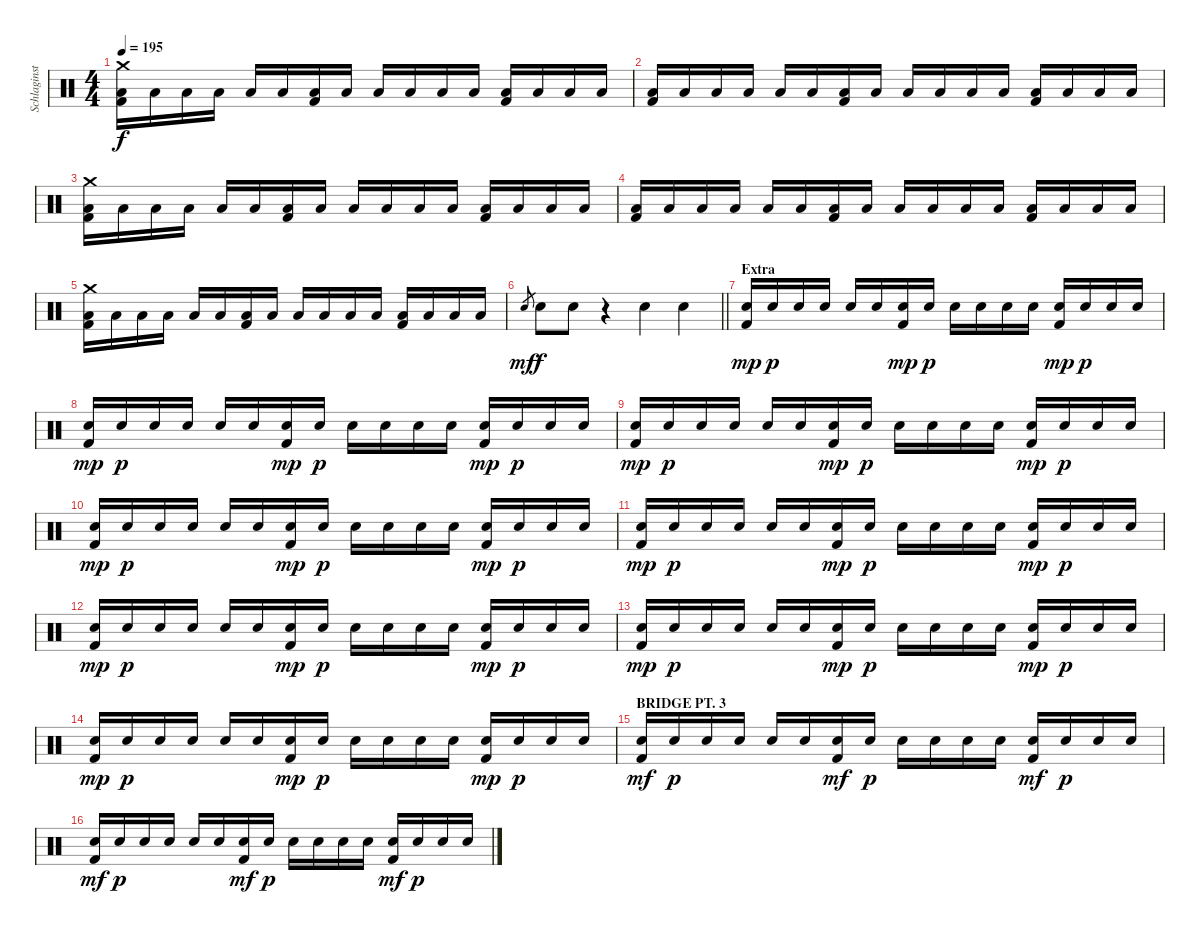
\track ("Schlaginstrumente - Auswahl" "Schlaginst") {instrument percussion}
\staff {score}
\articulation defaults
\ts (4 4)
\tempo 195
\clef neutral
\ks c
("Crash medium (hit)" "Low Floor Tom (hit)" "Kick (hit) 2").16{dy f} "Low Floor Tom (hit)".16 "Low Floor Tom (hit)".16 "Low Floor Tom (hit)".16 "Low Floor Tom (hit)".16 "Low Floor Tom (hit)".16 ("Low Floor Tom (hit)" "Kick (hit) 2").16 "Low Floor Tom (hit)".16 "Low Floor Tom (hit)".16 "Low Floor Tom (hit)".16 "Low Floor Tom (hit)".16 "Low Floor Tom (hit)".16 ("Low Floor Tom (hit)" "Kick (hit) 2").16 "Low Floor Tom (hit)".16 "Low Floor Tom (hit)".16 "Low Floor Tom (hit)".16 |
("Low Floor Tom (hit)" "Kick (hit) 2").16 "Low Floor Tom (hit)".16 "Low Floor Tom (hit)".16 "Low Floor Tom (hit)".16 "Low Floor Tom (hit)".16 "Low Floor Tom (hit)".16 ("Low Floor Tom (hit)" "Kick (hit) 2").16 "Low Floor Tom (hit)".16 "Low Floor Tom (hit)".16 "Low Floor Tom (hit)".16 "Low Floor Tom (hit)".16 "Low Floor Tom (hit)".16 ("Low Floor Tom (hit)" "Kick (hit) 2").16 "Low Floor Tom (hit)".16 "Low Floor Tom (hit)".16 "Low Floor Tom (hit)".16 |
("Crash medium (hit)" "Low Floor Tom (hit)" "Kick (hit) 2").16 "Low Floor Tom (hit)".16 "Low Floor Tom (hit)".16 "Low Floor Tom (hit)".16 "Low Floor Tom (hit)".16 "Low Floor Tom (hit)".16 ("Low Floor Tom (hit)" "Kick (hit) 2").16 "Low Floor Tom (hit)".16 "Low Floor Tom (hit)".16 "Low Floor Tom (hit)".16 "Low Floor Tom (hit)".16 "Low Floor Tom (hit)".16 ("Low Floor Tom (hit)" "Kick (hit) 2").16 "Low Floor Tom (hit)".16 "Low Floor Tom (hit)".16 "Low Floor Tom (hit)".16 |
("Low Floor Tom (hit)" "Kick (hit) 2").16 "Low Floor Tom (hit)".16 "Low Floor Tom (hit)".16 "Low Floor Tom (hit)".16 "Low Floor Tom (hit)".16 "Low Floor Tom (hit)".16 ("Low Floor Tom (hit)" "Kick (hit) 2").16 "Low Floor Tom (hit)".16 "Low Floor Tom (hit)".16 "Low Floor Tom (hit)".16 "Low Floor Tom (hit)".16 "Low Floor Tom (hit)".16 ("Low Floor Tom (hit)" "Kick (hit) 2").16 "Low Floor Tom (hit)".16 "Low Floor Tom (hit)".16 "Low Floor Tom (hit)".16 |
("Crash medium (hit)" "Low Floor Tom (hit)" "Kick (hit) 2").16 "Low Floor Tom (hit)".16 "Low Floor Tom (hit)".16 "Low Floor Tom (hit)".16 "Low Floor Tom (hit)".16 "Low Floor Tom (hit)".16 ("Low Floor Tom (hit)" "Kick (hit) 2").16 "Low Floor Tom (hit)".16 "Low Floor Tom (hit)".16 "Low Floor Tom (hit)".16 "Low Floor Tom (hit)".16 "Low Floor Tom (hit)".16 ("Low Floor Tom (hit)" "Kick (hit) 2").16 "Low Floor Tom (hit)".16 "Low Floor Tom (hit)".16 "Low Floor Tom (hit)".16 |
\barLineRight lightlight "Snare (hit) 2".8{gr dy mf} "Snare (hit) 2".8{dy f} "Snare (hit) 2".8
r.4 "Snare (hit) 2".4 "Snare (hit) 2".4 |
\section ("" "Extra")
("Snare (hit) 2" "Kick (hit) 2").16{dy mp} "Snare (hit) 2".16{dy p} "Snare (hit) 2".16 "Snare (hit) 2".16 "Snare (hit) 2".16 "Snare (hit) 2".16 ("Snare (hit) 2" "Kick (hit) 2").16{dy mp} "Snare (hit) 2".16{dy p} "Snare (hit) 2".16 "Snare (hit) 2".16 "Snare (hit) 2".16 "Snare (hit) 2".16 ("Snare (hit) 2" "Kick (hit) 2").16{dy mp} "Snare (hit) 2".16{dy p} "Snare (hit) 2".16 "Snare (hit) 2".16 |
("Snare (hit) 2" "Kick (hit) 2").16{dy mp} "Snare (hit) 2".16{dy p} "Snare (hit) 2".16 "Snare (hit) 2".16 "Snare (hit) 2".16 "Snare (hit) 2".16 ("Snare (hit) 2" "Kick (hit) 2").16{dy mp} "Snare (hit) 2".16{dy p} "Snare (hit) 2".16 "Snare (hit) 2".16 "Snare (hit) 2".16 "Snare (hit) 2".16 ("Snare (hit) 2" "Kick (hit) 2").16{dy mp} "Snare (hit) 2".16{dy p} "Snare (hit) 2".16 "Snare (hit) 2".16 |
("Snare (hit) 2" "Kick (hit) 2").16{dy mp} "Snare (hit) 2".16{dy p} "Snare (hit) 2".16 "Snare (hit) 2".16 "Snare (hit) 2".16 "Snare (hit) 2".16 ("Snare (hit) 2" "Kick (hit) 2").16{dy mp} "Snare (hit) 2".16{dy p} "Snare (hit) 2".16 "Snare (hit) 2".16 "Snare (hit) 2".16 "Snare (hit) 2".16 ("Snare (hit) 2" "Kick (hit) 2").16{dy mp} "Snare (hit) 2".16{dy p} "Snare (hit) 2".16 "Snare (hit) 2".16 |
("Snare (hit) 2" "Kick (hit) 2").16{dy mp} "Snare (hit) 2".16{dy p} "Snare (hit) 2".16 "Snare (hit) 2".16 "Snare (hit) 2".16 "Snare (hit) 2".16 ("Snare (hit) 2" "Kick (hit) 2").16{dy mp} "Snare (hit) 2".16{dy p} "Snare (hit) 2".16 "Snare (hit) 2".16 "Snare (hit) 2".16 "Snare (hit) 2".16 ("Snare (hit) 2" "Kick (hit) 2").16{dy mp} "Snare (hit) 2".16{dy p} "Snare (hit) 2".16 "Snare (hit) 2".16 |
("Snare (hit) 2" "Kick (hit) 2").16{dy mp} "Snare (hit) 2".16{dy p} "Snare (hit) 2".16 "Snare (hit) 2".16 "Snare (hit) 2".16 "Snare (hit) 2".16 ("Snare (hit) 2" "Kick (hit) 2").16{dy mp} "Snare (hit) 2".16{dy p} "Snare (hit) 2".16 "Snare (hit) 2".16 "Snare (hit) 2".16 "Snare (hit) 2".16 ("Snare (hit) 2" "Kick (hit) 2").16{dy mp} "Snare (hit) 2".16{dy p} "Snare (hit) 2".16 "Snare (hit) 2".16 |
("Snare (hit) 2" "Kick (hit) 2").16{dy mp} "Snare (hit) 2".16{dy p} "Snare (hit) 2".16 "Snare (hit) 2".16 "Snare (hit) 2".16 "Snare (hit) 2".16 ("Snare (hit) 2" "Kick (hit) 2").16{dy mp} "Snare (hit) 2".16{dy p} "Snare (hit) 2".16 "Snare (hit) 2".16 "Snare (hit) 2".16 "Snare (hit) 2".16 ("Snare (hit) 2" "Kick (hit) 2").16{dy mp} "Snare (hit) 2".16{dy p} "Snare (hit) 2".16 "Snare (hit) 2".16 |
("Snare (hit) 2" "Kick (hit) 2").16{dy mp} "Snare (hit) 2".16{dy p} "Snare (hit) 2".16 "Snare (hit) 2".16 "Snare (hit) 2".16 "Snare (hit) 2".16 ("Snare (hit) 2" "Kick (hit) 2").16{dy mp} "Snare (hit) 2".16{dy p} "Snare (hit) 2".16 "Snare (hit) 2".16 "Snare (hit) 2".16 "Snare (hit) 2".16 ("Snare (hit) 2" "Kick (hit) 2").16{dy mp} "Snare (hit) 2".16{dy p} "Snare (hit) 2".16 "Snare (hit) 2".16 |
("Snare (hit) 2" "Kick (hit) 2").16{dy mp} "Snare (hit) 2".16{dy p} "Snare (hit) 2".16 "Snare (hit) 2".16 "Snare (hit) 2".16 "Snare (hit) 2".16 ("Snare (hit) 2" "Kick (hit) 2").16{dy mp} "Snare (hit) 2".16{dy p} "Snare (hit) 2".16 "Snare (hit) 2".16 "Snare (hit) 2".16 "Snare (hit) 2".16 ("Snare (hit) 2" "Kick (hit) 2").16{dy mp} "Snare (hit) 2".16{dy p} "Snare (hit) 2".16 "Snare (hit) 2".16 |
\section ("" "BRIDGE PT. 3")
("Snare (hit) 2" "Kick (hit) 2").16{dy mf} "Snare (hit) 2".16{dy p} "Snare (hit) 2".16 "Snare (hit) 2".16 "Snare (hit) 2".16 "Snare (hit) 2".16 ("Snare (hit) 2" "Kick (hit) 2").16{dy mf} "Snare (hit) 2".16{dy p} "Snare (hit) 2".16 "Snare (hit) 2".16 "Snare (hit) 2".16 "Snare (hit) 2".16 ("Snare (hit) 2" "Kick (hit) 2").16{dy mf} "Snare (hit) 2".16{dy p} "Snare (hit) 2".16 "Snare (hit) 2".16 |
("Snare (hit) 2" "Kick (hit) 2").16{dy mf} "Snare (hit) 2".16{dy p} "Snare (hit) 2".16 "Snare (hit) 2".16 "Snare (hit) 2".16 "Snare (hit) 2".16 ("Snare (hit) 2" "Kick (hit) 2").16{dy mf} "Snare (hit) 2".16{dy p} "Snare (hit) 2".16 "Snare (hit) 2".16 "Snare (hit) 2".16 "Snare (hit) 2".16 ("Snare (hit) 2" "Kick (hit) 2").16{dy mf} "Snare (hit) 2".16{dy p} "Snare (hit) 2".16 "Snare (hit) 2".16
